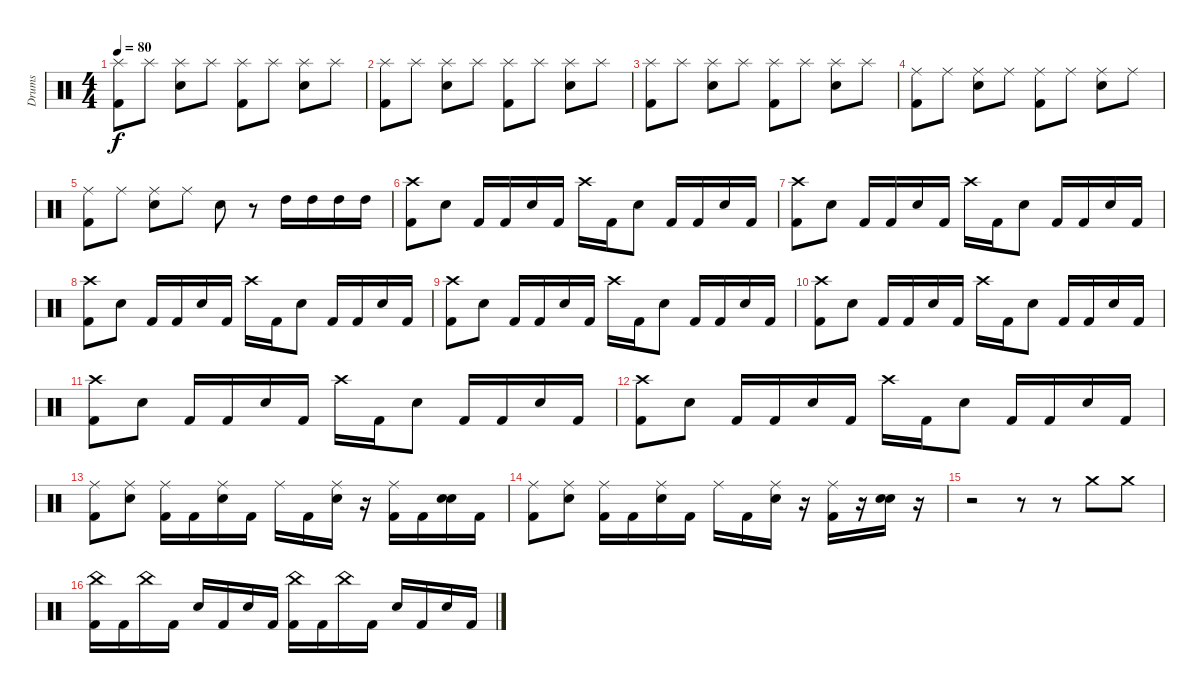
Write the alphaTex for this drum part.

\track ("Drums" "Drums") {instrument percussion}
\staff {score}
\articulation defaults
\ts (4 4)
\tempo 80
\clef neutral
\ks c
("Splash (hit)" "Kick (hit) 2").8{dy f} "Splash (hit)".8 ("Splash (hit)" "Electric Snare (hit)").8 "Splash (hit)".8 ("Splash (hit)" "Kick (hit) 2").8 "Splash (hit)".8 ("Splash (hit)" "Electric Snare (hit)").8 "Splash (hit)".8 |
("Splash (hit)" "Kick (hit) 2").8 "Splash (hit)".8 ("Splash (hit)" "Electric Snare (hit)").8 "Splash (hit)".8 ("Splash (hit)" "Kick (hit) 2").8 "Splash (hit)".8 ("Splash (hit)" "Electric Snare (hit)").8 "Splash (hit)".8 |
("Splash (hit)" "Kick (hit) 2").8 "Splash (hit)".8 ("Splash (hit)" "Electric Snare (hit)").8 "Splash (hit)".8 ("Splash (hit)" "Kick (hit) 2").8 "Splash (hit)".8 ("Splash (hit)" "Electric Snare (hit)").8 "Splash (hit)".8 |
("Ride (middle)" "Kick (hit) 2").8 "Ride (middle)".8 ("Ride (middle)" "Electric Snare (hit)").8 "Ride (middle)".8 ("Ride (middle)" "Kick (hit) 2").8 "Ride (middle)".8 ("Ride (middle)" "Electric Snare (hit)").8 "Ride (middle)".8 |
("Ride (middle)" "Kick (hit) 2").8 "Ride (middle)".8 ("Ride (middle)" "Electric Snare (hit)").8 "Ride (middle)".8 "Electric Snare (hit)".8 r.8 "High Tom (hit)".16 "High Tom (hit)".16 "High Tom (hit)".16 "High Tom (hit)".16 |
("Crash high (hit)" "Kick (hit) 2").8 "Electric Snare (hit)".8 "Kick (hit) 2".16 "Kick (hit) 2".16 "Electric Snare (hit)".16 "Kick (hit) 2".16 "Crash high (hit)".16 "Kick (hit) 2".16 "Electric Snare (hit)".8 "Kick (hit) 2".16 "Kick (hit) 2".16 "Electric Snare (hit)".16 "Kick (hit) 2".16 |
("Crash high (hit)" "Kick (hit) 2").8 "Electric Snare (hit)".8 "Kick (hit) 2".16 "Kick (hit) 2".16 "Electric Snare (hit)".16 "Kick (hit) 2".16 "Crash high (hit)".16 "Kick (hit) 2".16 "Electric Snare (hit)".8 "Kick (hit) 2".16 "Kick (hit) 2".16 "Electric Snare (hit)".16 "Kick (hit) 2".16 |
("Crash high (hit)" "Kick (hit) 2").8 "Electric Snare (hit)".8 "Kick (hit) 2".16 "Kick (hit) 2".16 "Electric Snare (hit)".16 "Kick (hit) 2".16 "Crash high (hit)".16 "Kick (hit) 2".16 "Electric Snare (hit)".8 "Kick (hit) 2".16 "Kick (hit) 2".16 "Electric Snare (hit)".16 "Kick (hit) 2".16 |
("Crash high (hit)" "Kick (hit) 2").8 "Electric Snare (hit)".8 "Kick (hit) 2".16 "Kick (hit) 2".16 "Electric Snare (hit)".16 "Kick (hit) 2".16 "Crash high (hit)".16 "Kick (hit) 2".16 "Electric Snare (hit)".8 "Kick (hit) 2".16 "Kick (hit) 2".16 "Electric Snare (hit)".16 "Kick (hit) 2".16 |
("Crash high (hit)" "Kick (hit) 2").8 "Electric Snare (hit)".8 "Kick (hit) 2".16 "Kick (hit) 2".16 "Electric Snare (hit)".16 "Kick (hit) 2".16 "Crash high (hit)".16 "Kick (hit) 2".16 "Electric Snare (hit)".8 "Kick (hit) 2".16 "Kick (hit) 2".16 "Electric Snare (hit)".16 "Kick (hit) 2".16 |
("Crash high (hit)" "Kick (hit) 2").8 "Electric Snare (hit)".8 "Kick (hit) 2".16 "Kick (hit) 2".16 "Electric Snare (hit)".16 "Kick (hit) 2".16 "Crash high (hit)".16 "Kick (hit) 2".16 "Electric Snare (hit)".8 "Kick (hit) 2".16 "Kick (hit) 2".16 "Electric Snare (hit)".16 "Kick (hit) 2".16 |
("Crash high (hit)" "Kick (hit) 2").8 "Electric Snare (hit)".8 "Kick (hit) 2".16 "Kick (hit) 2".16 "Electric Snare (hit)".16 "Kick (hit) 2".16 "Crash high (hit)".16 "Kick (hit) 2".16 "Electric Snare (hit)".8 "Kick (hit) 2".16 "Kick (hit) 2".16 "Electric Snare (hit)".16 "Kick (hit) 2".16 |
("Ride (middle)" "Kick (hit) 2").8 ("Ride (middle)" "Electric Snare (hit)").8 ("Ride (middle)" "Kick (hit) 2").16 "Kick (hit) 2".16 ("Ride (middle)" "Electric Snare (hit)").16 "Kick (hit) 2".16 "Ride (middle)".16 "Kick (hit) 2".16 ("Ride (middle)" "Electric Snare (hit)").16 r.16 ("Ride (middle)" "Kick (hit) 2").16 "Kick (hit) 2".16 ("Snare (hit)" "Electric Snare (hit)").16 "Kick (hit) 2".16 |
("Ride (middle)" "Kick (hit) 2").8 ("Ride (middle)" "Electric Snare (hit)").8 ("Ride (middle)" "Kick (hit) 2").16 "Kick (hit) 2".16 ("Ride (middle)" "Electric Snare (hit)").16 "Kick (hit) 2".16 "Ride (middle)".16 "Kick (hit) 2".16 ("Ride (middle)" "Electric Snare (hit)").16 r.16 ("Ride (middle)" "Kick (hit) 2").16 r.16 ("Electric Snare (hit)" "Snare (hit) 2").16 r.16 |
r.2 r.8 r.8 "Crash medium (hit)".8 "Crash medium (hit)".8 |
("China (hit)" "Kick (hit) 2").16 "Kick (hit) 2".16 "China (hit)".16 "Kick (hit) 2".16 "Electric Snare (hit)".16 "Kick (hit) 2".16 "Electric Snare (hit)".16 "Kick (hit) 2".16 ("China (hit)" "Kick (hit) 2").16 "Kick (hit) 2".16 "China (hit)".16 "Kick (hit) 2".16 "Electric Snare (hit)".16 "Kick (hit) 2".16 "Electric Snare (hit)".16 "Kick (hit) 2".16
